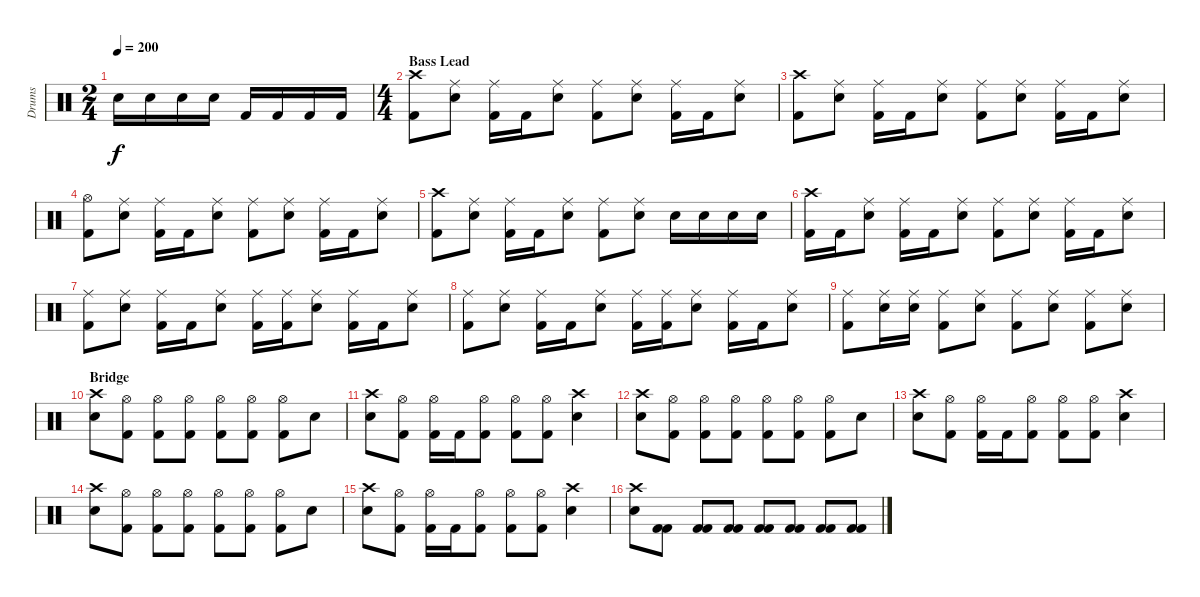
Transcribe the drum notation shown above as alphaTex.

\track ("Drums" "Drums") {instrument percussion}
\staff {score}
\articulation defaults
\ts (2 4)
\tempo 200
\clef neutral
\ks c "Snare (hit) 2".16{dy f} "Snare (hit) 2".16 "Snare (hit) 2".16 "Snare (hit) 2".16 "Kick (hit) 2".16 "Kick (hit) 2".16 "Kick (hit) 2".16 "Kick (hit) 2".16
|
\ts (4 4)
\section ("" "Bass Lead")
("Crash high (hit)" "Kick (hit) 2").8 ("Ride (middle)" "Snare (hit) 2").8 ("Ride (middle)" "Kick (hit) 2").16 "Kick (hit) 2".16 ("Ride (middle)" "Snare (hit) 2").8 ("Ride (middle)" "Kick (hit) 2").8 ("Ride (middle)" "Snare (hit) 2").8 ("Ride (middle)" "Kick (hit) 2").16 "Kick (hit) 2".16 ("Ride (middle)" "Snare (hit) 2").8 |
("Crash high (hit)" "Kick (hit) 2").8 ("Ride (middle)" "Snare (hit) 2").8 ("Ride (middle)" "Kick (hit) 2").16 "Kick (hit) 2".16 ("Ride (middle)" "Snare (hit) 2").8 ("Ride (middle)" "Kick (hit) 2").8 ("Ride (middle)" "Snare (hit) 2").8 ("Ride (middle)" "Kick (hit) 2").16 "Kick (hit) 2".16 ("Ride (middle)" "Snare (hit) 2").8 |
("Hi-Hat (open)" "Kick (hit) 2").8 ("Ride (middle)" "Snare (hit) 2").8 ("Ride (middle)" "Kick (hit) 2").16 "Kick (hit) 2".16 ("Ride (middle)" "Snare (hit) 2").8 ("Ride (middle)" "Kick (hit) 2").8 ("Ride (middle)" "Snare (hit) 2").8 ("Ride (middle)" "Kick (hit) 2").16 "Kick (hit) 2".16 ("Ride (middle)" "Snare (hit) 2").8 |
("Crash high (hit)" "Kick (hit) 2").8 ("Ride (middle)" "Snare (hit) 2").8 ("Ride (middle)" "Kick (hit) 2").16 "Kick (hit) 2".16 ("Ride (middle)" "Snare (hit) 2").8 ("Ride (middle)" "Kick (hit) 2").8 ("Ride (middle)" "Snare (hit) 2").8 "Snare (hit) 2".16 "Snare (hit) 2".16 "Snare (hit) 2".16 "Snare (hit) 2".16 |
("Crash high (hit)" "Kick (hit) 2").16 "Kick (hit) 2".16 ("Ride (middle)" "Snare (hit) 2").8 ("Ride (middle)" "Kick (hit) 2").16 "Kick (hit) 2".16 ("Ride (middle)" "Snare (hit) 2").8 ("Ride (middle)" "Kick (hit) 2").8 ("Ride (middle)" "Snare (hit) 2").8 ("Ride (middle)" "Kick (hit) 2").16 "Kick (hit) 2".16 ("Ride (middle)" "Snare (hit) 2").8 |
("Ride (middle)" "Kick (hit) 2").8 ("Ride (middle)" "Snare (hit) 2").8 ("Ride (middle)" "Kick (hit) 2").16 "Kick (hit) 2".16 ("Ride (middle)" "Snare (hit) 2").8 ("Ride (middle)" "Kick (hit) 2").16 ("Ride (middle)" "Kick (hit) 2").16 ("Ride (middle)" "Snare (hit) 2").8 ("Ride (middle)" "Kick (hit) 2").16 "Kick (hit) 2".16 ("Ride (middle)" "Snare (hit) 2").8 |
("Ride (middle)" "Kick (hit) 2").8 ("Ride (middle)" "Snare (hit) 2").8 ("Ride (middle)" "Kick (hit) 2").16 "Kick (hit) 2".16 ("Ride (middle)" "Snare (hit) 2").8 ("Ride (middle)" "Kick (hit) 2").16 ("Ride (middle)" "Kick (hit) 2").16 ("Ride (middle)" "Snare (hit) 2").8 ("Ride (middle)" "Kick (hit) 2").16 "Kick (hit) 2".16 ("Ride (middle)" "Snare (hit) 2").8 |
("Ride (middle)" "Kick (hit) 2").8 ("Ride (middle)" "Snare (hit) 2").16 ("Ride (middle)" "Snare (hit) 2").16 ("Ride (middle)" "Kick (hit) 2").8 ("Ride (middle)" "Snare (hit) 2").8 ("Ride (middle)" "Kick (hit) 2").8 ("Ride (middle)" "Snare (hit) 2").8 ("Ride (middle)" "Kick (hit) 2").8 ("Ride (middle)" "Snare (hit) 2").8 |
\section ("" "Bridge")
("Crash high (hit)" "Snare (hit) 2").8 ("Hi-Hat (open)" "Kick (hit) 2").8 ("Hi-Hat (open)" "Kick (hit) 2").8 ("Hi-Hat (open)" "Kick (hit) 2").8 ("Hi-Hat (open)" "Kick (hit) 2").8 ("Hi-Hat (open)" "Kick (hit) 2").8 ("Hi-Hat (open)" "Kick (hit) 2").8 "Snare (hit) 2".8 |
("Crash high (hit)" "Snare (hit) 2").8 ("Hi-Hat (open)" "Kick (hit) 2").8 ("Hi-Hat (open)" "Kick (hit) 2").16 "Kick (hit) 2".16 ("Hi-Hat (open)" "Kick (hit) 2").8 ("Hi-Hat (open)" "Kick (hit) 2").8 ("Hi-Hat (open)" "Kick (hit) 2").8 ("Crash high (hit)" "Snare (hit) 2").4 |
("Crash high (hit)" "Snare (hit) 2").8 ("Hi-Hat (open)" "Kick (hit) 2").8 ("Hi-Hat (open)" "Kick (hit) 2").8 ("Hi-Hat (open)" "Kick (hit) 2").8 ("Hi-Hat (open)" "Kick (hit) 2").8 ("Hi-Hat (open)" "Kick (hit) 2").8 ("Hi-Hat (open)" "Kick (hit) 2").8 "Snare (hit) 2".8 |
("Crash high (hit)" "Snare (hit) 2").8 ("Hi-Hat (open)" "Kick (hit) 2").8 ("Hi-Hat (open)" "Kick (hit) 2").16 "Kick (hit) 2".16 ("Hi-Hat (open)" "Kick (hit) 2").8 ("Hi-Hat (open)" "Kick (hit) 2").8 ("Hi-Hat (open)" "Kick (hit) 2").8 ("Crash high (hit)" "Snare (hit) 2").4 |
("Crash high (hit)" "Snare (hit) 2").8 ("Hi-Hat (open)" "Kick (hit) 2").8 ("Hi-Hat (open)" "Kick (hit) 2").8 ("Hi-Hat (open)" "Kick (hit) 2").8 ("Hi-Hat (open)" "Kick (hit) 2").8 ("Hi-Hat (open)" "Kick (hit) 2").8 ("Hi-Hat (open)" "Kick (hit) 2").8 "Snare (hit) 2".8 |
("Crash high (hit)" "Snare (hit) 2").8 ("Hi-Hat (open)" "Kick (hit) 2").8 ("Hi-Hat (open)" "Kick (hit) 2").16 "Kick (hit) 2".16 ("Hi-Hat (open)" "Kick (hit) 2").8 ("Hi-Hat (open)" "Kick (hit) 2").8 ("Hi-Hat (open)" "Kick (hit) 2").8 ("Crash high (hit)" "Snare (hit) 2").4 |
("Crash high (hit)" "Snare (hit) 2").8 ("Kick (hit) 2" "Kick (hit) 2").8 ("Kick (hit) 2" "Kick (hit) 2").8 ("Kick (hit) 2" "Kick (hit) 2").8 ("Kick (hit) 2" "Kick (hit) 2").8 ("Kick (hit) 2" "Kick (hit) 2").8 ("Kick (hit) 2" "Kick (hit) 2").8 ("Kick (hit) 2" "Kick (hit) 2").8
